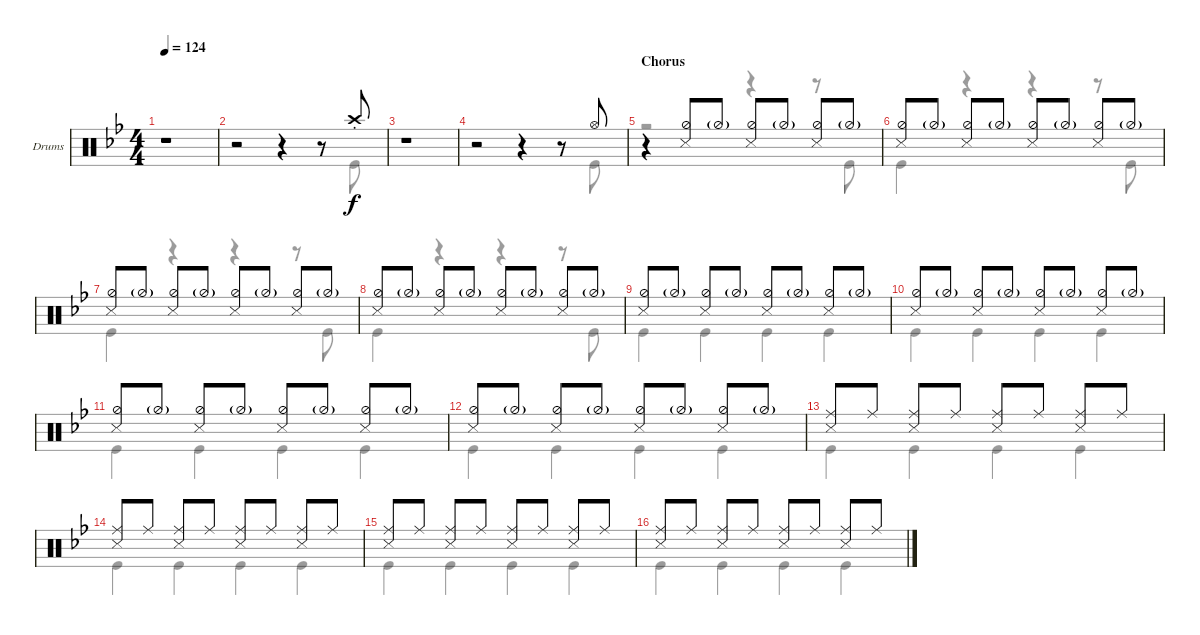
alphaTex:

\defaultSystemsLayout 4
\bracketExtendMode groupsimilarinstruments
\firstSystemTrackNameOrientation horizontal
\otherSystemsTrackNameOrientation horizontal
\track ("Drums" "Drums") {instrument percussion}
\staff {score}
\articulation defaults
\voice
\ts (4 4)
\tempo 124
\clef neutral
\ks gminor
r.1{dy f} |
r.2 r.4 r.8 "Crash high (hit)"{st}.8 |
r.1 |
r.2 r.4 r.8 "Hi-Hat (open)".8 |
\section ("" "Chorus")
r.4 ("Hi-Hat (half)" "Snare (side stick) 3").8 "Hi-Hat (half)"{g}.8 ("Hi-Hat (half)" "Snare (side stick) 3").8 "Hi-Hat (half)"{g}.8 ("Hi-Hat (half)" "Snare (side stick) 3").8 "Hi-Hat (half)"{g}.8 |
("Hi-Hat (half)" "Snare (side stick) 3").8 "Hi-Hat (half)"{g}.8 ("Hi-Hat (half)" "Snare (side stick) 3").8 "Hi-Hat (half)"{g}.8 ("Hi-Hat (half)" "Snare (side stick) 3").8 "Hi-Hat (half)"{g}.8 ("Hi-Hat (half)" "Snare (side stick) 3").8 "Hi-Hat (half)"{g}.8 |
("Hi-Hat (half)" "Snare (side stick) 3").8 "Hi-Hat (half)"{g}.8 ("Hi-Hat (half)" "Snare (side stick) 3").8 "Hi-Hat (half)"{g}.8 ("Hi-Hat (half)" "Snare (side stick) 3").8 "Hi-Hat (half)"{g}.8 ("Hi-Hat (half)" "Snare (side stick) 3").8 "Hi-Hat (half)"{g}.8 |
("Hi-Hat (half)" "Snare (side stick) 3").8 "Hi-Hat (half)"{g}.8 ("Hi-Hat (half)" "Snare (side stick) 3").8 "Hi-Hat (half)"{g}.8 ("Hi-Hat (half)" "Snare (side stick) 3").8 "Hi-Hat (half)"{g}.8 ("Hi-Hat (half)" "Snare (side stick) 3").8 "Hi-Hat (half)"{g}.8 |
("Hi-Hat (half)" "Snare (side stick) 3").8 "Hi-Hat (half)"{g}.8 ("Hi-Hat (half)" "Snare (side stick) 3").8 "Hi-Hat (half)"{g}.8 ("Hi-Hat (half)" "Snare (side stick) 3").8 "Hi-Hat (half)"{g}.8 ("Hi-Hat (half)" "Snare (side stick) 3").8 "Hi-Hat (half)"{g}.8 |
("Hi-Hat (half)" "Snare (side stick) 3").8 "Hi-Hat (half)"{g}.8 ("Hi-Hat (half)" "Snare (side stick) 3").8 "Hi-Hat (half)"{g}.8 ("Hi-Hat (half)" "Snare (side stick) 3").8 "Hi-Hat (half)"{g}.8 ("Hi-Hat (half)" "Snare (side stick) 3").8 "Hi-Hat (half)"{g}.8 |
("Hi-Hat (half)" "Snare (side stick) 3").8 "Hi-Hat (half)"{g}.8 ("Hi-Hat (half)" "Snare (side stick) 3").8 "Hi-Hat (half)"{g}.8 ("Hi-Hat (half)" "Snare (side stick) 3").8 "Hi-Hat (half)"{g}.8 ("Hi-Hat (half)" "Snare (side stick) 3").8 "Hi-Hat (half)"{g}.8 |
("Hi-Hat (half)" "Snare (side stick) 3").8 "Hi-Hat (half)"{g}.8 ("Hi-Hat (half)" "Snare (side stick) 3").8 "Hi-Hat (half)"{g}.8 ("Hi-Hat (half)" "Snare (side stick) 3").8 "Hi-Hat (half)"{g}.8 ("Hi-Hat (half)" "Snare (side stick) 3").8 "Hi-Hat (half)"{g}.8 |
("Snare (side stick) 3" "Ride (middle)").8 "Ride (middle)".8 ("Snare (side stick) 3" "Ride (middle)").8 "Ride (middle)".8 ("Snare (side stick) 3" "Ride (middle)").8 "Ride (middle)".8 ("Snare (side stick) 3" "Ride (middle)").8 "Ride (middle)".8 |
("Snare (side stick) 3" "Ride (middle)").8 "Ride (middle)".8 ("Snare (side stick) 3" "Ride (middle)").8 "Ride (middle)".8 ("Snare (side stick) 3" "Ride (middle)").8 "Ride (middle)".8 ("Snare (side stick) 3" "Ride (middle)").8 "Ride (middle)".8 |
("Snare (side stick) 3" "Ride (middle)").8 "Ride (middle)".8 ("Snare (side stick) 3" "Ride (middle)").8 "Ride (middle)".8 ("Snare (side stick) 3" "Ride (middle)").8 "Ride (middle)".8 ("Snare (side stick) 3" "Ride (middle)").8 "Ride (middle)".8 |
("Snare (side stick) 3" "Ride (middle)").8 "Ride (middle)".8 ("Snare (side stick) 3" "Ride (middle)").8 "Ride (middle)".8 ("Snare (side stick) 3" "Ride (middle)").8 "Ride (middle)".8 ("Snare (side stick) 3" "Ride (middle)").8 "Ride (middle)".8
\voice
\clef neutral
\ottava regular
\simile none
\ks gminor
r.1{dy f} |
r.2 r.4 r.8 "Kick (hit)".8 |
r.1 |
r.2 r.4 r.8 "Kick (hit)".8 |
r.2 r.4 r.8 "Kick (hit)".8 |
"Kick (hit)".4 r.4 r.4 r.8 "Kick (hit)".8 |
"Kick (hit)".4 r.4 r.4 r.8 "Kick (hit)".8 |
"Kick (hit)".4 r.4 r.4 r.8 "Kick (hit)".8 |
"Kick (hit)".4 "Kick (hit)".4 "Kick (hit)".4 "Kick (hit)".4 |
"Kick (hit)".4 "Kick (hit)".4 "Kick (hit)".4 "Kick (hit)".4 |
"Kick (hit)".4 "Kick (hit)".4 "Kick (hit)".4 "Kick (hit)".4 |
"Kick (hit)".4 "Kick (hit)".4 "Kick (hit)".4 "Kick (hit)".4 |
"Kick (hit)".4 "Kick (hit)".4 "Kick (hit)".4 "Kick (hit)".4 |
"Kick (hit)".4 "Kick (hit)".4 "Kick (hit)".4 "Kick (hit)".4 |
"Kick (hit)".4 "Kick (hit)".4 "Kick (hit)".4 "Kick (hit)".4 |
"Kick (hit)".4 "Kick (hit)".4 "Kick (hit)".4 "Kick (hit)".4
